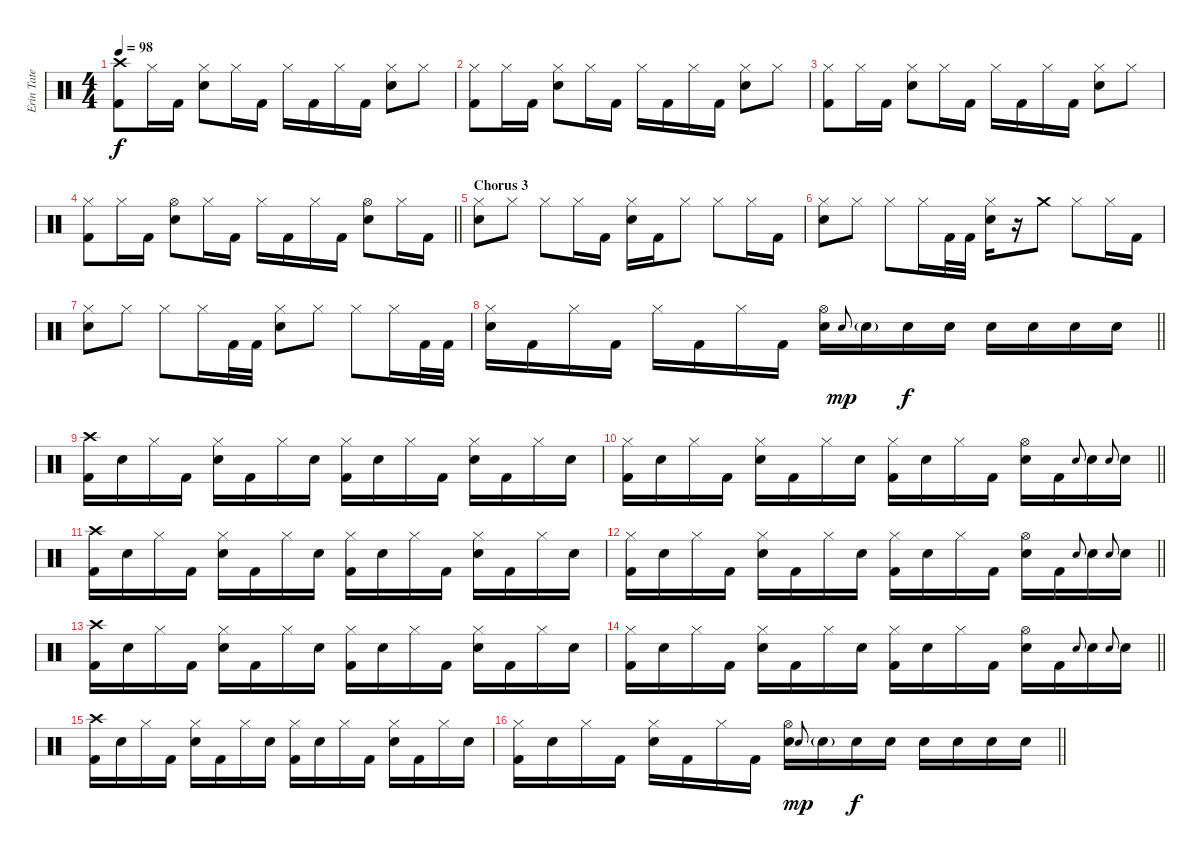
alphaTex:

\track ("Erin Tate" "Erin Tate") {instrument percussion}
\staff {score}
\articulation defaults
\ts (4 4)
\tempo 98
\clef neutral
\ks c
("Crash high (hit)" "Kick (hit) 2").8{dy f} "Hi-Hat (closed)".16 "Kick (hit) 2".16 ("Hi-Hat (closed)" "Electric Snare (hit)").8 "Hi-Hat (closed)".16 "Kick (hit) 2".16 "Hi-Hat (closed)".16 "Kick (hit) 2".16 "Hi-Hat (closed)".16 "Kick (hit) 2".16 ("Hi-Hat (closed)" "Electric Snare (hit)").8 "Hi-Hat (closed)".8 |
("Hi-Hat (closed)" "Kick (hit) 2").8 "Hi-Hat (closed)".16 "Kick (hit) 2".16 ("Hi-Hat (closed)" "Electric Snare (hit)").8 "Hi-Hat (closed)".16 "Kick (hit) 2".16 "Hi-Hat (closed)".16 "Kick (hit) 2".16 "Hi-Hat (closed)".16 "Kick (hit) 2".16 ("Hi-Hat (closed)" "Electric Snare (hit)").8 "Hi-Hat (closed)".8 |
("Hi-Hat (closed)" "Kick (hit) 2").8 "Hi-Hat (closed)".16 "Kick (hit) 2".16 ("Hi-Hat (closed)" "Electric Snare (hit)").8 "Hi-Hat (closed)".16 "Kick (hit) 2".16 "Hi-Hat (closed)".16 "Kick (hit) 2".16 "Hi-Hat (closed)".16 "Kick (hit) 2".16 ("Hi-Hat (closed)" "Electric Snare (hit)").8 "Hi-Hat (closed)".8 |
\barLineRight lightlight
("Hi-Hat (closed)" "Kick (hit) 2").8 "Hi-Hat (closed)".16 "Kick (hit) 2".16 ("Hi-Hat (open)" "Electric Snare (hit)").8 "Hi-Hat (closed)".16 "Kick (hit) 2".16 "Hi-Hat (closed)".16 "Kick (hit) 2".16 "Hi-Hat (closed)".16 "Kick (hit) 2".16 ("Hi-Hat (open)" "Electric Snare (hit)").8 "Hi-Hat (closed)".16 "Kick (hit) 2".16 |
\section ("" "Chorus 3")
("Hi-Hat (closed)" "Electric Snare (hit)").8 "Hi-Hat (closed)".8 "Hi-Hat (closed)".8 "Hi-Hat (closed)".16 "Kick (hit) 2".16 ("Hi-Hat (closed)" "Electric Snare (hit)").16 "Kick (hit) 2".16 "Hi-Hat (closed)".8 "Hi-Hat (closed)".8 "Hi-Hat (closed)".16 "Kick (hit) 2".16 |
("Hi-Hat (closed)" "Electric Snare (hit)").8 "Hi-Hat (closed)".8 "Hi-Hat (closed)".8 "Hi-Hat (closed)".16 "Kick (hit) 2".32 "Kick (hit) 2".32 ("Hi-Hat (closed)" "Electric Snare (hit)").16 r.16 "Crash medium (hit)".8 "Hi-Hat (closed)".8 "Hi-Hat (closed)".16 "Kick (hit) 2".16 |
("Hi-Hat (closed)" "Electric Snare (hit)").8 "Hi-Hat (closed)".8 "Hi-Hat (closed)".8 "Hi-Hat (closed)".16 "Kick (hit) 2".32 "Kick (hit) 2".32 ("Hi-Hat (closed)" "Electric Snare (hit)").8 "Hi-Hat (closed)".8 "Hi-Hat (closed)".8 "Hi-Hat (closed)".16 "Kick (hit) 2".32 "Kick (hit) 2".32 |
\barLineRight lightlight
("Hi-Hat (closed)" "Electric Snare (hit)").16 "Kick (hit) 2".16 "Hi-Hat (closed)".16 "Kick (hit) 2".16 "Hi-Hat (closed)".16 "Kick (hit) 2".16 "Hi-Hat (closed)".16 "Kick (hit) 2".16 ("Hi-Hat (open)" "Electric Snare (hit)").16 "Electric Snare (hit)".8{gr onbeat dy mp} "Electric Snare (hit)"{g}.16 "Electric Snare (hit)".16{dy f} "Electric Snare (hit)".16 "Electric Snare (hit)".16 "Electric Snare (hit)".16 "Electric Snare (hit)".16 "Electric Snare (hit)".16 |
("Crash high (hit)" "Kick (hit) 2").16 "Electric Snare (hit)".16 "Hi-Hat (closed)".16 "Kick (hit) 2".16 ("Hi-Hat (closed)" "Electric Snare (hit)").16 "Kick (hit) 2".16 "Hi-Hat (closed)".16 "Electric Snare (hit)".16 ("Hi-Hat (closed)" "Kick (hit) 2").16 "Electric Snare (hit)".16 "Hi-Hat (closed)".16 "Kick (hit) 2".16 ("Hi-Hat (closed)" "Electric Snare (hit)").16 "Kick (hit) 2".16 "Hi-Hat (closed)".16 "Electric Snare (hit)".16 |
\barLineRight lightlight
("Hi-Hat (closed)" "Kick (hit) 2").16 "Electric Snare (hit)".16 "Hi-Hat (closed)".16 "Kick (hit) 2".16 ("Hi-Hat (closed)" "Electric Snare (hit)").16 "Kick (hit) 2".16 "Hi-Hat (closed)".16 "Electric Snare (hit)".16 ("Hi-Hat (closed)" "Kick (hit) 2").16 "Electric Snare (hit)".16 "Hi-Hat (closed)".16 "Kick (hit) 2".16 ("Hi-Hat (open)" "Electric Snare (hit)").16 "Kick (hit) 2".16 "Electric Snare (hit)".8{gr onbeat} "Electric Snare (hit)".16 "Electric Snare (hit)".8{gr onbeat} "Electric Snare (hit)".16 |
("Crash high (hit)" "Kick (hit) 2").16 "Electric Snare (hit)".16 "Hi-Hat (closed)".16 "Kick (hit) 2".16 ("Hi-Hat (closed)" "Electric Snare (hit)").16 "Kick (hit) 2".16 "Hi-Hat (closed)".16 "Electric Snare (hit)".16 ("Hi-Hat (closed)" "Kick (hit) 2").16 "Electric Snare (hit)".16 "Hi-Hat (closed)".16 "Kick (hit) 2".16 ("Hi-Hat (closed)" "Electric Snare (hit)").16 "Kick (hit) 2".16 "Hi-Hat (closed)".16 "Electric Snare (hit)".16 |
\barLineRight lightlight
("Hi-Hat (closed)" "Kick (hit) 2").16 "Electric Snare (hit)".16 "Hi-Hat (closed)".16 "Kick (hit) 2".16 ("Hi-Hat (closed)" "Electric Snare (hit)").16 "Kick (hit) 2".16 "Hi-Hat (closed)".16 "Electric Snare (hit)".16 ("Hi-Hat (closed)" "Kick (hit) 2").16 "Electric Snare (hit)".16 "Hi-Hat (closed)".16 "Kick (hit) 2".16 ("Hi-Hat (open)" "Electric Snare (hit)").16 "Kick (hit) 2".16 "Electric Snare (hit)".8{gr onbeat} "Electric Snare (hit)".16 "Electric Snare (hit)".8{gr onbeat} "Electric Snare (hit)".16 |
("Crash high (hit)" "Kick (hit) 2").16 "Electric Snare (hit)".16 "Hi-Hat (closed)".16 "Kick (hit) 2".16 ("Hi-Hat (closed)" "Electric Snare (hit)").16 "Kick (hit) 2".16 "Hi-Hat (closed)".16 "Electric Snare (hit)".16 ("Hi-Hat (closed)" "Kick (hit) 2").16 "Electric Snare (hit)".16 "Hi-Hat (closed)".16 "Kick (hit) 2".16 ("Hi-Hat (closed)" "Electric Snare (hit)").16 "Kick (hit) 2".16 "Hi-Hat (closed)".16 "Electric Snare (hit)".16 |
\barLineRight lightlight
("Hi-Hat (closed)" "Kick (hit) 2").16 "Electric Snare (hit)".16 "Hi-Hat (closed)".16 "Kick (hit) 2".16 ("Hi-Hat (closed)" "Electric Snare (hit)").16 "Kick (hit) 2".16 "Hi-Hat (closed)".16 "Electric Snare (hit)".16 ("Hi-Hat (closed)" "Kick (hit) 2").16 "Electric Snare (hit)".16 "Hi-Hat (closed)".16 "Kick (hit) 2".16 ("Hi-Hat (open)" "Electric Snare (hit)").16 "Kick (hit) 2".16 "Electric Snare (hit)".8{gr onbeat} "Electric Snare (hit)".16 "Electric Snare (hit)".8{gr onbeat} "Electric Snare (hit)".16 |
("Crash high (hit)" "Kick (hit) 2").16 "Electric Snare (hit)".16 "Hi-Hat (closed)".16 "Kick (hit) 2".16 ("Hi-Hat (closed)" "Electric Snare (hit)").16 "Kick (hit) 2".16 "Hi-Hat (closed)".16 "Electric Snare (hit)".16 ("Hi-Hat (closed)" "Kick (hit) 2").16 "Electric Snare (hit)".16 "Hi-Hat (closed)".16 "Kick (hit) 2".16 ("Hi-Hat (closed)" "Electric Snare (hit)").16 "Kick (hit) 2".16 "Hi-Hat (closed)".16 "Electric Snare (hit)".16 |
\barLineRight lightlight
("Hi-Hat (closed)" "Kick (hit) 2").16 "Electric Snare (hit)".16 "Hi-Hat (closed)".16 "Kick (hit) 2".16 ("Hi-Hat (closed)" "Electric Snare (hit)").16 "Kick (hit) 2".16 "Hi-Hat (closed)".16 "Kick (hit) 2".16 ("Hi-Hat (open)" "Electric Snare (hit)").16 "Electric Snare (hit)".8{gr onbeat dy mp} "Electric Snare (hit)"{g}.16 "Electric Snare (hit)".16{dy f} "Electric Snare (hit)".16 "Electric Snare (hit)".16 "Electric Snare (hit)".16 "Electric Snare (hit)".16 "Electric Snare (hit)".16
